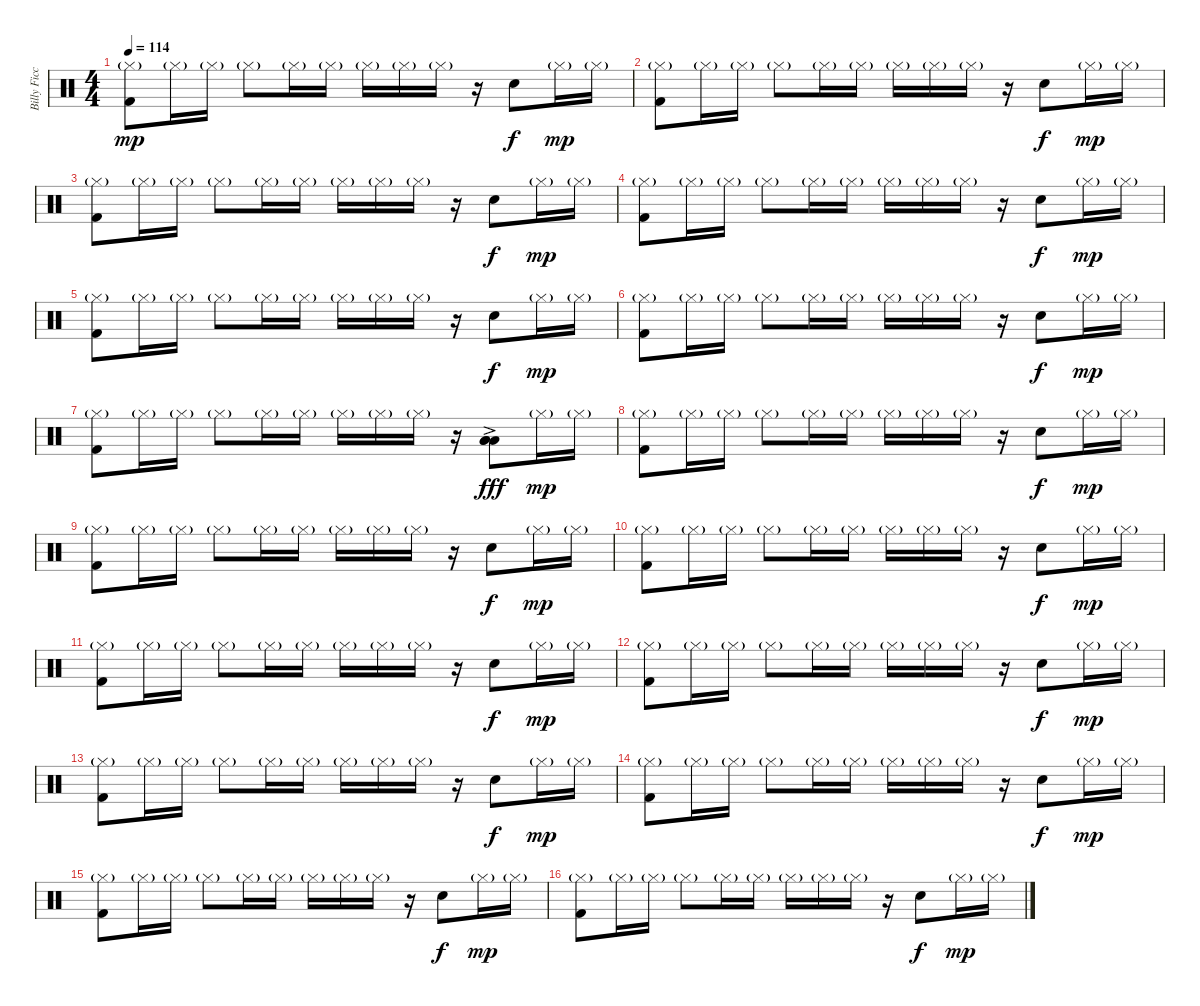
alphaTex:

\track ("Billy Ficca" "Billy Ficc") {instrument percussion}
\staff {score}
\articulation defaults
\ts (4 4)
\tempo 114
\clef neutral
\ks c
("Hi-Hat (closed)"{g} "Kick (hit) 2").8{dy mp} "Hi-Hat (closed)"{g}.16 "Hi-Hat (closed)"{g}.16 "Hi-Hat (closed)"{g}.8 "Hi-Hat (closed)"{g}.16 "Hi-Hat (closed)"{g}.16 "Hi-Hat (closed)"{g}.16 "Hi-Hat (closed)"{g}.16 "Hi-Hat (closed)"{g}.16 r.16 "Electric Snare (hit)".8{dy f} "Hi-Hat (closed)"{g}.16{dy mp} "Hi-Hat (closed)"{g}.16 |
("Hi-Hat (closed)"{g} "Kick (hit) 2").8 "Hi-Hat (closed)"{g}.16 "Hi-Hat (closed)"{g}.16 "Hi-Hat (closed)"{g}.8 "Hi-Hat (closed)"{g}.16 "Hi-Hat (closed)"{g}.16 "Hi-Hat (closed)"{g}.16 "Hi-Hat (closed)"{g}.16 "Hi-Hat (closed)"{g}.16 r.16 "Electric Snare (hit)".8{dy f} "Hi-Hat (closed)"{g}.16{dy mp} "Hi-Hat (closed)"{g}.16 |
("Hi-Hat (closed)"{g} "Kick (hit) 2").8 "Hi-Hat (closed)"{g}.16 "Hi-Hat (closed)"{g}.16 "Hi-Hat (closed)"{g}.8 "Hi-Hat (closed)"{g}.16 "Hi-Hat (closed)"{g}.16 "Hi-Hat (closed)"{g}.16 "Hi-Hat (closed)"{g}.16 "Hi-Hat (closed)"{g}.16 r.16 "Electric Snare (hit)".8{dy f} "Hi-Hat (closed)"{g}.16{dy mp} "Hi-Hat (closed)"{g}.16 |
("Hi-Hat (closed)"{g} "Kick (hit) 2").8 "Hi-Hat (closed)"{g}.16 "Hi-Hat (closed)"{g}.16 "Hi-Hat (closed)"{g}.8 "Hi-Hat (closed)"{g}.16 "Hi-Hat (closed)"{g}.16 "Hi-Hat (closed)"{g}.16 "Hi-Hat (closed)"{g}.16 "Hi-Hat (closed)"{g}.16 r.16 "Electric Snare (hit)".8{dy f} "Hi-Hat (closed)"{g}.16{dy mp} "Hi-Hat (closed)"{g}.16 |
("Hi-Hat (closed)"{g} "Kick (hit) 2").8 "Hi-Hat (closed)"{g}.16 "Hi-Hat (closed)"{g}.16 "Hi-Hat (closed)"{g}.8 "Hi-Hat (closed)"{g}.16 "Hi-Hat (closed)"{g}.16 "Hi-Hat (closed)"{g}.16 "Hi-Hat (closed)"{g}.16 "Hi-Hat (closed)"{g}.16 r.16 "Electric Snare (hit)".8{dy f} "Hi-Hat (closed)"{g}.16{dy mp} "Hi-Hat (closed)"{g}.16 |
("Hi-Hat (closed)"{g} "Kick (hit) 2").8 "Hi-Hat (closed)"{g}.16 "Hi-Hat (closed)"{g}.16 "Hi-Hat (closed)"{g}.8 "Hi-Hat (closed)"{g}.16 "Hi-Hat (closed)"{g}.16 "Hi-Hat (closed)"{g}.16 "Hi-Hat (closed)"{g}.16 "Hi-Hat (closed)"{g}.16 r.16 "Electric Snare (hit)".8{dy f} "Hi-Hat (closed)"{g}.16{dy mp} "Hi-Hat (closed)"{g}.16 |
("Hi-Hat (closed)"{g} "Kick (hit) 2").8 "Hi-Hat (closed)"{g}.16 "Hi-Hat (closed)"{g}.16 "Hi-Hat (closed)"{g}.8 "Hi-Hat (closed)"{g}.16 "Hi-Hat (closed)"{g}.16 "Hi-Hat (closed)"{g}.16 "Hi-Hat (closed)"{g}.16 "Hi-Hat (closed)"{g}.16 r.16 ("Low Floor Tom (hit)" "Low Floor Tom (hit)" "Low Floor Tom (hit)"{ac}).8{dy fff} "Hi-Hat (closed)"{g}.16{dy mp} "Hi-Hat (closed)"{g}.16 |
("Hi-Hat (closed)"{g} "Kick (hit) 2").8 "Hi-Hat (closed)"{g}.16 "Hi-Hat (closed)"{g}.16 "Hi-Hat (closed)"{g}.8 "Hi-Hat (closed)"{g}.16 "Hi-Hat (closed)"{g}.16 "Hi-Hat (closed)"{g}.16 "Hi-Hat (closed)"{g}.16 "Hi-Hat (closed)"{g}.16 r.16 "Electric Snare (hit)".8{dy f} "Hi-Hat (closed)"{g}.16{dy mp} "Hi-Hat (closed)"{g}.16 |
("Hi-Hat (closed)"{g} "Kick (hit) 2").8 "Hi-Hat (closed)"{g}.16 "Hi-Hat (closed)"{g}.16 "Hi-Hat (closed)"{g}.8 "Hi-Hat (closed)"{g}.16 "Hi-Hat (closed)"{g}.16 "Hi-Hat (closed)"{g}.16 "Hi-Hat (closed)"{g}.16 "Hi-Hat (closed)"{g}.16 r.16 "Electric Snare (hit)".8{dy f} "Hi-Hat (closed)"{g}.16{dy mp} "Hi-Hat (closed)"{g}.16 |
("Hi-Hat (closed)"{g} "Kick (hit) 2").8 "Hi-Hat (closed)"{g}.16 "Hi-Hat (closed)"{g}.16 "Hi-Hat (closed)"{g}.8 "Hi-Hat (closed)"{g}.16 "Hi-Hat (closed)"{g}.16 "Hi-Hat (closed)"{g}.16 "Hi-Hat (closed)"{g}.16 "Hi-Hat (closed)"{g}.16 r.16 "Electric Snare (hit)".8{dy f} "Hi-Hat (closed)"{g}.16{dy mp} "Hi-Hat (closed)"{g}.16 |
("Hi-Hat (closed)"{g} "Kick (hit) 2").8 "Hi-Hat (closed)"{g}.16 "Hi-Hat (closed)"{g}.16 "Hi-Hat (closed)"{g}.8 "Hi-Hat (closed)"{g}.16 "Hi-Hat (closed)"{g}.16 "Hi-Hat (closed)"{g}.16 "Hi-Hat (closed)"{g}.16 "Hi-Hat (closed)"{g}.16 r.16 "Electric Snare (hit)".8{dy f} "Hi-Hat (closed)"{g}.16{dy mp} "Hi-Hat (closed)"{g}.16 |
("Hi-Hat (closed)"{g} "Kick (hit) 2").8 "Hi-Hat (closed)"{g}.16 "Hi-Hat (closed)"{g}.16 "Hi-Hat (closed)"{g}.8 "Hi-Hat (closed)"{g}.16 "Hi-Hat (closed)"{g}.16 "Hi-Hat (closed)"{g}.16 "Hi-Hat (closed)"{g}.16 "Hi-Hat (closed)"{g}.16 r.16 "Electric Snare (hit)".8{dy f} "Hi-Hat (closed)"{g}.16{dy mp} "Hi-Hat (closed)"{g}.16 |
("Hi-Hat (closed)"{g} "Kick (hit) 2").8 "Hi-Hat (closed)"{g}.16 "Hi-Hat (closed)"{g}.16 "Hi-Hat (closed)"{g}.8 "Hi-Hat (closed)"{g}.16 "Hi-Hat (closed)"{g}.16 "Hi-Hat (closed)"{g}.16 "Hi-Hat (closed)"{g}.16 "Hi-Hat (closed)"{g}.16 r.16 "Electric Snare (hit)".8{dy f} "Hi-Hat (closed)"{g}.16{dy mp} "Hi-Hat (closed)"{g}.16 |
("Hi-Hat (closed)"{g} "Kick (hit) 2").8 "Hi-Hat (closed)"{g}.16 "Hi-Hat (closed)"{g}.16 "Hi-Hat (closed)"{g}.8 "Hi-Hat (closed)"{g}.16 "Hi-Hat (closed)"{g}.16 "Hi-Hat (closed)"{g}.16 "Hi-Hat (closed)"{g}.16 "Hi-Hat (closed)"{g}.16 r.16 "Electric Snare (hit)".8{dy f} "Hi-Hat (closed)"{g}.16{dy mp} "Hi-Hat (closed)"{g}.16 |
("Hi-Hat (closed)"{g} "Kick (hit) 2").8 "Hi-Hat (closed)"{g}.16 "Hi-Hat (closed)"{g}.16 "Hi-Hat (closed)"{g}.8 "Hi-Hat (closed)"{g}.16 "Hi-Hat (closed)"{g}.16 "Hi-Hat (closed)"{g}.16 "Hi-Hat (closed)"{g}.16 "Hi-Hat (closed)"{g}.16 r.16 "Electric Snare (hit)".8{dy f} "Hi-Hat (closed)"{g}.16{dy mp} "Hi-Hat (closed)"{g}.16 |
("Hi-Hat (closed)"{g} "Kick (hit) 2").8 "Hi-Hat (closed)"{g}.16 "Hi-Hat (closed)"{g}.16 "Hi-Hat (closed)"{g}.8 "Hi-Hat (closed)"{g}.16 "Hi-Hat (closed)"{g}.16 "Hi-Hat (closed)"{g}.16 "Hi-Hat (closed)"{g}.16 "Hi-Hat (closed)"{g}.16 r.16 "Electric Snare (hit)".8{dy f} "Hi-Hat (closed)"{g}.16{dy mp} "Hi-Hat (closed)"{g}.16
